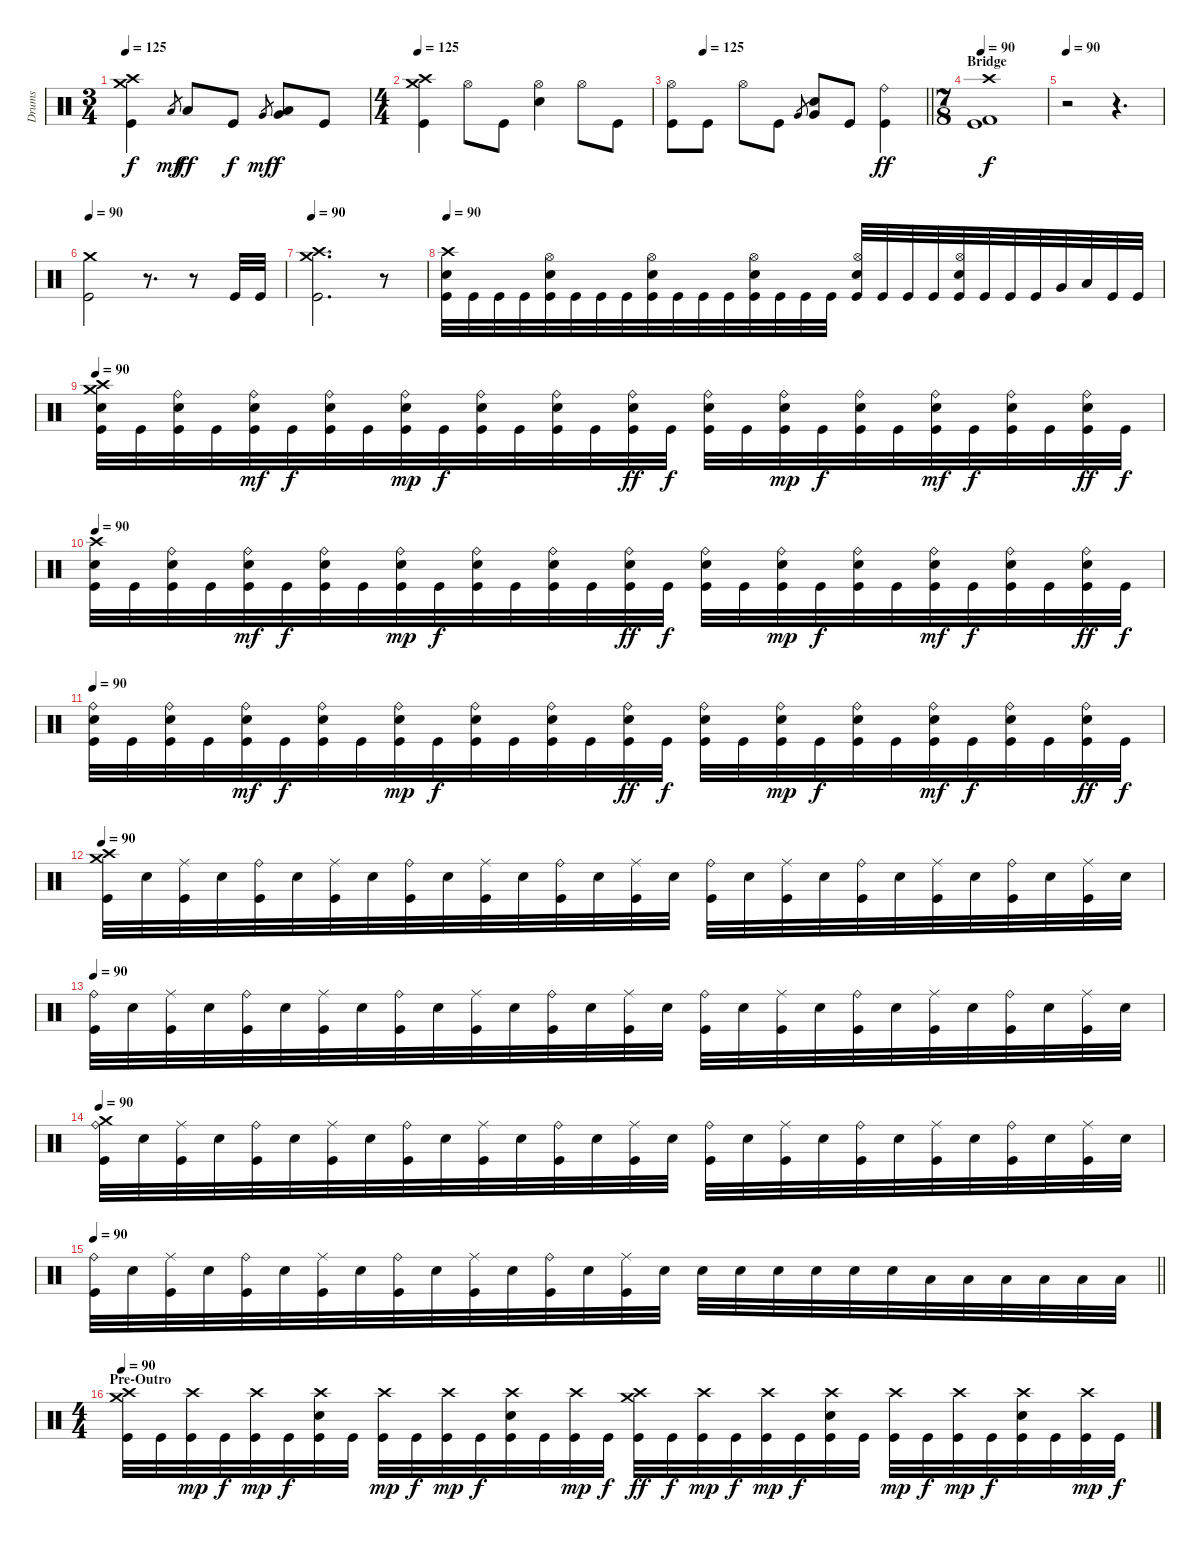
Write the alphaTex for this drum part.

\track ("Drums" "Drums") {instrument percussion}
\staff {score}
\articulation defaults
\ts (3 4)
\tempo 120
\tempo 125
\clef neutral
\ks c
("Crash medium (hit)" "Crash high (hit)" "Kick (hit)").4{dy f} "Low Tom (hit)".8{gr dy mf} "Low Tom (hit)".8{dy ff} "Kick (hit)".8{dy f} "Very Low Tom (hit)".8{gr dy mf} ("Very Low Tom (hit)" "Low Floor Tom (hit)").8{dy f} "Kick (hit)".8 |
\ts (4 4)
\tempo 125
("Crash medium (hit)" "Crash high (hit)" "Kick (hit)").4 "Hi-Hat (open)".8 "Kick (hit)".8 ("Hi-Hat (open)" "Electric Snare (hit)").4 "Hi-Hat (open)".8 "Kick (hit)".8 |
\tempo (125 0.125)
\barLineRight lightlight
("Hi-Hat (open)" "Kick (hit)").8 "Kick (hit)".8 "Hi-Hat (open)".8 "Kick (hit)".8 "Very Low Tom (hit)".8{gr} ("Electric Snare (hit)" "Very Low Tom (hit)").8 "Kick (hit)".8 ("Ride (bell)" "Kick (hit)").4{dy ff} |
\ts (7 8)
\section ("" "Bridge")
\tempo 90
("Crash high (hit)" "Kick (hit) 2" "Kick (hit)").1{dy f} |
\tempo 90
r.2 r.4{d} |
\tempo 90
("Crash medium (hit)" "Kick (hit)").2 r.8{d} r.8 "Kick (hit)".32 "Kick (hit)".32 |
\tempo 90
("Crash medium (hit)" "Crash high (hit)" "Kick (hit)").2{d} r.8 |
\tempo 90
("Crash high (hit)" "Electric Snare (hit)" "Kick (hit)").32 "Kick (hit)".32 "Kick (hit)".32 "Kick (hit)".32 ("Hi-Hat (open)" "Electric Snare (hit)" "Kick (hit)").32 "Kick (hit)".32 "Kick (hit)".32 "Kick (hit)".32 ("Hi-Hat (open)" "Electric Snare (hit)" "Kick (hit)").32 "Kick (hit)".32 "Kick (hit)".32 "Kick (hit)".32 ("Hi-Hat (open)" "Electric Snare (hit)" "Kick (hit)").32 "Kick (hit)".32 "Kick (hit)".32 "Kick (hit)".32 ("Hi-Hat (open)" "Electric Snare (hit)" "Kick (hit)").32 "Kick (hit)".32 "Kick (hit)".32 "Kick (hit)".32 ("Hi-Hat (open)" "Electric Snare (hit)" "Kick (hit)").32 "Kick (hit)".32 "Kick (hit)".32 "Kick (hit)".32 "Very Low Tom (hit)".32 "Low Floor Tom (hit)".32 "Kick (hit)".32 "Kick (hit)".32 |
\tempo 90
("Crash medium (hit)" "Crash high (hit)" "Electric Snare (hit)" "Kick (hit)").32 "Kick (hit)".32 ("Ride (bell)" "Electric Snare (hit)" "Kick (hit)").32 "Kick (hit)".32 ("Ride (bell)" "Electric Snare (hit)" "Kick (hit)").32{dy mf} "Kick (hit)".32{dy f} ("Ride (bell)" "Electric Snare (hit)" "Kick (hit)").32 "Kick (hit)".32 ("Ride (bell)" "Electric Snare (hit)" "Kick (hit)").32{dy mp} "Kick (hit)".32{dy f} ("Ride (bell)" "Electric Snare (hit)" "Kick (hit)").32 "Kick (hit)".32 ("Ride (bell)" "Electric Snare (hit)" "Kick (hit)").32 "Kick (hit)".32 ("Ride (bell)" "Electric Snare (hit)" "Kick (hit)").32{dy ff} "Kick (hit)".32{dy f} ("Ride (bell)" "Electric Snare (hit)" "Kick (hit)").32 "Kick (hit)".32 ("Ride (bell)" "Electric Snare (hit)" "Kick (hit)").32{dy mp} "Kick (hit)".32{dy f} ("Ride (bell)" "Electric Snare (hit)" "Kick (hit)").32 "Kick (hit)".32 ("Ride (bell)" "Electric Snare (hit)" "Kick (hit)").32{dy mf} "Kick (hit)".32{dy f} ("Ride (bell)" "Electric Snare (hit)" "Kick (hit)").32 "Kick (hit)".32 ("Ride (bell)" "Electric Snare (hit)" "Kick (hit)").32{dy ff} "Kick (hit)".32{dy f} |
\tempo 90
("Crash high (hit)" "Electric Snare (hit)" "Kick (hit)").32 "Kick (hit)".32 ("Ride (bell)" "Electric Snare (hit)" "Kick (hit)").32 "Kick (hit)".32 ("Ride (bell)" "Electric Snare (hit)" "Kick (hit)").32{dy mf} "Kick (hit)".32{dy f} ("Ride (bell)" "Electric Snare (hit)" "Kick (hit)").32 "Kick (hit)".32 ("Ride (bell)" "Electric Snare (hit)" "Kick (hit)").32{dy mp} "Kick (hit)".32{dy f} ("Ride (bell)" "Electric Snare (hit)" "Kick (hit)").32 "Kick (hit)".32 ("Ride (bell)" "Electric Snare (hit)" "Kick (hit)").32 "Kick (hit)".32 ("Ride (bell)" "Electric Snare (hit)" "Kick (hit)").32{dy ff} "Kick (hit)".32{dy f} ("Ride (bell)" "Electric Snare (hit)" "Kick (hit)").32 "Kick (hit)".32 ("Ride (bell)" "Electric Snare (hit)" "Kick (hit)").32{dy mp} "Kick (hit)".32{dy f} ("Ride (bell)" "Electric Snare (hit)" "Kick (hit)").32 "Kick (hit)".32 ("Ride (bell)" "Electric Snare (hit)" "Kick (hit)").32{dy mf} "Kick (hit)".32{dy f} ("Ride (bell)" "Electric Snare (hit)" "Kick (hit)").32 "Kick (hit)".32 ("Ride (bell)" "Electric Snare (hit)" "Kick (hit)").32{dy ff} "Kick (hit)".32{dy f} |
\tempo 90
("Ride (bell)" "Electric Snare (hit)" "Kick (hit)").32 "Kick (hit)".32 ("Ride (bell)" "Electric Snare (hit)" "Kick (hit)").32 "Kick (hit)".32 ("Ride (bell)" "Electric Snare (hit)" "Kick (hit)").32{dy mf} "Kick (hit)".32{dy f} ("Ride (bell)" "Electric Snare (hit)" "Kick (hit)").32 "Kick (hit)".32 ("Ride (bell)" "Electric Snare (hit)" "Kick (hit)").32{dy mp} "Kick (hit)".32{dy f} ("Ride (bell)" "Electric Snare (hit)" "Kick (hit)").32 "Kick (hit)".32 ("Ride (bell)" "Electric Snare (hit)" "Kick (hit)").32 "Kick (hit)".32 ("Ride (bell)" "Electric Snare (hit)" "Kick (hit)").32{dy ff} "Kick (hit)".32{dy f} ("Ride (bell)" "Electric Snare (hit)" "Kick (hit)").32 "Kick (hit)".32 ("Ride (bell)" "Electric Snare (hit)" "Kick (hit)").32{dy mp} "Kick (hit)".32{dy f} ("Ride (bell)" "Electric Snare (hit)" "Kick (hit)").32 "Kick (hit)".32 ("Ride (bell)" "Electric Snare (hit)" "Kick (hit)").32{dy mf} "Kick (hit)".32{dy f} ("Ride (bell)" "Electric Snare (hit)" "Kick (hit)").32 "Kick (hit)".32 ("Ride (bell)" "Electric Snare (hit)" "Kick (hit)").32{dy ff} "Kick (hit)".32{dy f} |
\tempo 90
("Crash medium (hit)" "Crash high (hit)" "Kick (hit)").32 "Electric Snare (hit)".32 ("Ride (middle)" "Kick (hit)").32 "Electric Snare (hit)".32 ("Ride (bell)" "Kick (hit)").32 "Electric Snare (hit)".32 ("Ride (middle)" "Kick (hit)").32 "Electric Snare (hit)".32 ("Ride (bell)" "Kick (hit)").32 "Electric Snare (hit)".32 ("Ride (middle)" "Kick (hit)").32 "Electric Snare (hit)".32 ("Ride (bell)" "Kick (hit)").32 "Electric Snare (hit)".32 ("Ride (middle)" "Kick (hit)").32 "Electric Snare (hit)".32 ("Ride (bell)" "Kick (hit)").32 "Electric Snare (hit)".32 ("Ride (middle)" "Kick (hit)").32 "Electric Snare (hit)".32 ("Ride (bell)" "Kick (hit)").32 "Electric Snare (hit)".32 ("Ride (middle)" "Kick (hit)").32 "Electric Snare (hit)".32 ("Ride (bell)" "Kick (hit)").32 "Electric Snare (hit)".32 ("Ride (middle)" "Kick (hit)").32 "Electric Snare (hit)".32 |
\tempo 90
("Ride (bell)" "Kick (hit)").32 "Electric Snare (hit)".32 ("Ride (middle)" "Kick (hit)").32 "Electric Snare (hit)".32 ("Ride (bell)" "Kick (hit)").32 "Electric Snare (hit)".32 ("Ride (middle)" "Kick (hit)").32 "Electric Snare (hit)".32 ("Ride (bell)" "Kick (hit)").32 "Electric Snare (hit)".32 ("Ride (middle)" "Kick (hit)").32 "Electric Snare (hit)".32 ("Ride (bell)" "Kick (hit)").32 "Electric Snare (hit)".32 ("Ride (middle)" "Kick (hit)").32 "Electric Snare (hit)".32 ("Ride (bell)" "Kick (hit)").32 "Electric Snare (hit)".32 ("Ride (middle)" "Kick (hit)").32 "Electric Snare (hit)".32 ("Ride (bell)" "Kick (hit)").32 "Electric Snare (hit)".32 ("Ride (middle)" "Kick (hit)").32 "Electric Snare (hit)".32 ("Ride (bell)" "Kick (hit)").32 "Electric Snare (hit)".32 ("Ride (middle)" "Kick (hit)").32 "Electric Snare (hit)".32 |
\tempo 90
("Crash medium (hit)" "Ride (bell)" "Kick (hit)").32 "Electric Snare (hit)".32 ("Ride (middle)" "Kick (hit)").32 "Electric Snare (hit)".32 ("Ride (bell)" "Kick (hit)").32 "Electric Snare (hit)".32 ("Ride (middle)" "Kick (hit)").32 "Electric Snare (hit)".32 ("Ride (bell)" "Kick (hit)").32 "Electric Snare (hit)".32 ("Ride (middle)" "Kick (hit)").32 "Electric Snare (hit)".32 ("Ride (bell)" "Kick (hit)").32 "Electric Snare (hit)".32 ("Ride (middle)" "Kick (hit)").32 "Electric Snare (hit)".32 ("Ride (bell)" "Kick (hit)").32 "Electric Snare (hit)".32 ("Ride (middle)" "Kick (hit)").32 "Electric Snare (hit)".32 ("Ride (bell)" "Kick (hit)").32 "Electric Snare (hit)".32 ("Ride (middle)" "Kick (hit)").32 "Electric Snare (hit)".32 ("Ride (bell)" "Kick (hit)").32 "Electric Snare (hit)".32 ("Ride (middle)" "Kick (hit)").32 "Electric Snare (hit)".32 |
\tempo 90
\barLineRight lightlight
("Ride (bell)" "Kick (hit)").32 "Electric Snare (hit)".32 ("Ride (middle)" "Kick (hit)").32 "Electric Snare (hit)".32 ("Ride (bell)" "Kick (hit)").32 "Electric Snare (hit)".32 ("Ride (middle)" "Kick (hit)").32 "Electric Snare (hit)".32 ("Ride (bell)" "Kick (hit)").32 "Electric Snare (hit)".32 ("Ride (middle)" "Kick (hit)").32 "Electric Snare (hit)".32 ("Ride (bell)" "Kick (hit)").32 "Electric Snare (hit)".32 ("Ride (middle)" "Kick (hit)").32 "Electric Snare (hit)".32 "Electric Snare (hit)".32 "Electric Snare (hit)".32 "Electric Snare (hit)".32 "Electric Snare (hit)".32 "Electric Snare (hit)".32 "Electric Snare (hit)".32 "Low Tom (hit)".32 "Low Tom (hit)".32 "Low Tom (hit)".32 "Low Tom (hit)".32 "Low Tom (hit)".32 "Low Tom (hit)".32 |
\ts (4 4)
\section ("" "Pre-Outro")
\tempo 75
\tempo 90
("Crash medium (hit)" "Crash high (hit)" "Kick (hit)").32 "Kick (hit)".32 ("Crash high (hit)" "Kick (hit)").32{dy mp} "Kick (hit)".32{dy f} ("Crash high (hit)" "Kick (hit)").32{dy mp} "Kick (hit)".32{dy f} ("Crash high (hit)" "Electric Snare (hit)" "Kick (hit)").32 "Kick (hit)".32 ("Crash high (hit)" "Kick (hit)").32{dy mp} "Kick (hit)".32{dy f} ("Crash high (hit)" "Kick (hit)").32{dy mp} "Kick (hit)".32{dy f} ("Crash high (hit)" "Electric Snare (hit)" "Kick (hit)").32 "Kick (hit)".32 ("Crash high (hit)" "Kick (hit)").32{dy mp} "Kick (hit)".32{dy f} ("Crash medium (hit)" "Crash high (hit)" "Kick (hit)").32{dy ff} "Kick (hit)".32{dy f} ("Crash high (hit)" "Kick (hit)").32{dy mp} "Kick (hit)".32{dy f} ("Crash high (hit)" "Kick (hit)").32{dy mp} "Kick (hit)".32{dy f} ("Crash high (hit)" "Electric Snare (hit)" "Kick (hit)").32 "Kick (hit)".32 ("Crash high (hit)" "Kick (hit)").32{dy mp} "Kick (hit)".32{dy f} ("Crash high (hit)" "Kick (hit)").32{dy mp} "Kick (hit)".32{dy f} ("Crash high (hit)" "Electric Snare (hit)" "Kick (hit)").32 "Kick (hit)".32 ("Crash high (hit)" "Kick (hit)").32{dy mp} "Kick (hit)".32{dy f}
